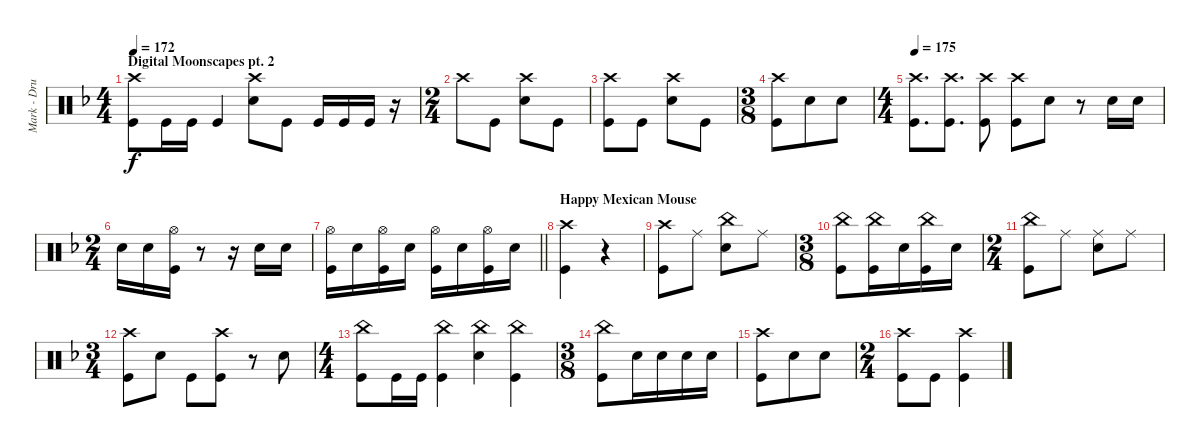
\track ("Mark - Drums" "Mark - Dru") {instrument percussion}
\staff {score}
\articulation defaults
\ts (4 4)
\section ("" "Digital Moonscapes pt. 2")
\tempo 172
\clef neutral
\ks dminor
("Kick (hit)" "Crash high (hit)").8{dy f} "Kick (hit)".16 "Kick (hit)".16 "Kick (hit)".4 ("Snare (hit) 2" "Crash high (hit)").8 "Kick (hit)".8 "Kick (hit)".16 "Kick (hit)".16 "Kick (hit)".16 r.16 |
\ts (2 4)
"Crash high (hit)".8 "Kick (hit)".8 ("Snare (hit) 2" "Crash high (hit)").8 "Kick (hit)".8 |
("Kick (hit)" "Crash high (hit)").8 "Kick (hit)".8 ("Snare (hit) 2" "Crash high (hit)").8 "Kick (hit)".8 |
\ts (3 8)
("Kick (hit)" "Crash high (hit)").8 "Snare (hit) 2".8 "Snare (hit) 2".8 |
\ts (4 4)
\tempo 174
\tempo 175
("Crash high (hit)" "Kick (hit)").8{d} ("Crash high (hit)" "Kick (hit)").8{d} ("Crash high (hit)" "Kick (hit)").8 ("Kick (hit)" "Crash high (hit)").8 "Snare (hit) 2".8 r.8 "Snare (hit) 2".16 "Snare (hit) 2".16 |
\ts (2 4)
"Snare (hit) 2".16 "Snare (hit) 2".16 ("Kick (hit)" "Hi-Hat (open)").16 r.8 r.16 "Snare (hit) 2".16 "Snare (hit) 2".16 |
\barLineRight lightlight
("Kick (hit)" "Hi-Hat (open)").16 "Snare (hit) 2".16 ("Kick (hit)" "Hi-Hat (open)").16 "Snare (hit) 2".16 ("Kick (hit)" "Hi-Hat (open)").16 "Snare (hit) 2".16 ("Kick (hit)" "Hi-Hat (open)").16 "Snare (hit) 2".16 |
\section ("" "Happy Mexican Mouse")
("Kick (hit)" "Crash high (hit)").4 r.4 |
("Kick (hit)" "Crash high (hit)").8 "Ride (middle)".8 ("Snare (hit) 2" "China (hit)").8 "Ride (middle)".8 |
\ts (3 8)
("Kick (hit)" "China (hit)").8 ("Kick (hit)" "China (hit)").16 "Snare (hit) 2".16 ("Kick (hit)" "China (hit)").16 "Snare (hit) 2".16 |
\ts (2 4)
("Kick (hit)" "China (hit)").8 "Ride (middle)".8 ("Snare (hit) 2" "Ride (middle)").8 "Ride (middle)".8 |
\ts (3 4)
("Kick (hit)" "Crash high (hit)").8 "Snare (hit) 2".8 "Kick (hit)".8 ("Kick (hit)" "Crash high (hit)").8 r.8 "Snare (hit) 2".8 |
\ts (4 4)
("Kick (hit)" "China (hit)").8 "Kick (hit)".16 "Kick (hit)".16 ("Kick (hit)" "China (hit)").4 ("Snare (hit) 2" "China (hit)").4 ("Kick (hit)" "China (hit)").4 |
\ts (3 8)
("Kick (hit)" "China (hit)").8 "Snare (hit) 2".16 "Snare (hit) 2".16 "Snare (hit) 2".16 "Snare (hit) 2".16 |
("Kick (hit)" "Crash high (hit)").8 "Snare (hit) 2".8 "Snare (hit) 2".8 |
\ts (2 4)
("Kick (hit)" "Crash high (hit)").8 "Kick (hit)".8 ("Kick (hit)" "Crash high (hit)").4
